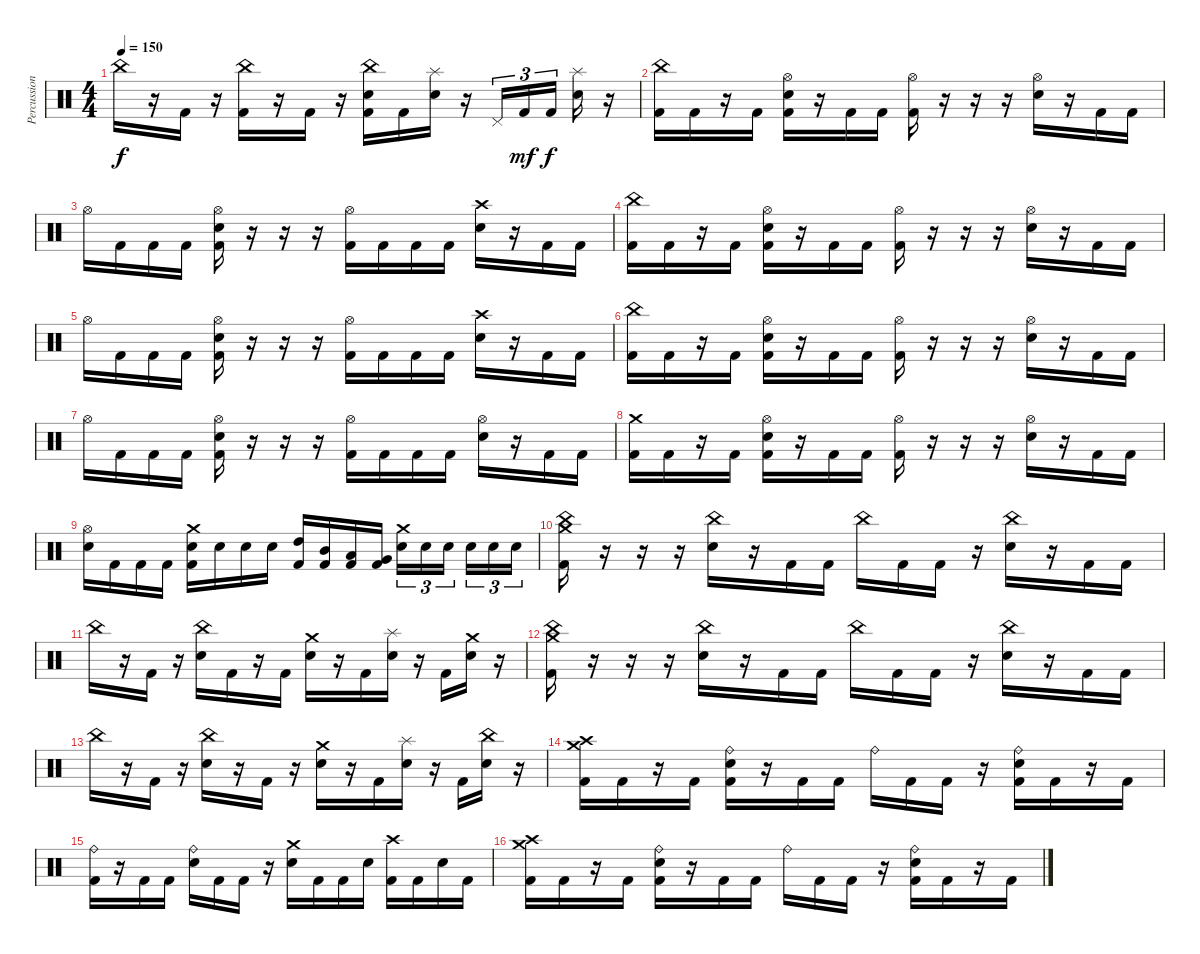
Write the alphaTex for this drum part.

\track ("Percussion" "Percussion") {instrument percussion}
\staff {score}
\articulation defaults
\ts (4 4)
\tempo 150
\clef neutral
\ks c "China (hit)".16{dy f}
r.16 "Kick (hit) 2".16 r.16 ("China (hit)" "Kick (hit) 2").16 r.16 "Kick (hit) 2".16 r.16 ("China (hit)" "Electric Snare (hit)" "Kick (hit) 2").16 "Kick (hit) 2".16 ("Splash (hit)" "Electric Snare (hit)").16 r.16 "Pedal Hi-Hat (hit)".16{tu (3 2)} "Kick (hit) 2".16{tu (3 2) dy mf} "Kick (hit) 2".16{tu (3 2) dy f} ("Splash (hit)" "Electric Snare (hit)").16 r.16 |
("China (hit)" "Kick (hit) 2").16 "Kick (hit) 2".16 r.16 "Kick (hit) 2".16 ("Hi-Hat (open)" "Electric Snare (hit)" "Kick (hit) 2").16 r.16 "Kick (hit) 2".16 "Kick (hit) 2".16 ("Hi-Hat (open)" "Kick (hit) 2").16 r.16 r.16 r.16 ("Hi-Hat (open)" "Electric Snare (hit)").16 r.16 "Kick (hit) 2".16 "Kick (hit) 2".16 |
"Hi-Hat (open)".16 "Kick (hit) 2".16 "Kick (hit) 2".16 "Kick (hit) 2".16 ("Hi-Hat (open)" "Electric Snare (hit)" "Kick (hit) 2").16 r.16 r.16 r.16 ("Hi-Hat (open)" "Kick (hit) 2").16 "Kick (hit) 2".16 "Kick (hit) 2".16 "Kick (hit) 2".16 ("Crash high (hit)" "Electric Snare (hit)").16 r.16 "Kick (hit) 2".16 "Kick (hit) 2".16 |
("China (hit)" "Kick (hit) 2").16 "Kick (hit) 2".16 r.16 "Kick (hit) 2".16 ("Hi-Hat (open)" "Electric Snare (hit)" "Kick (hit) 2").16 r.16 "Kick (hit) 2".16 "Kick (hit) 2".16 ("Hi-Hat (open)" "Kick (hit) 2").16 r.16 r.16 r.16 ("Hi-Hat (open)" "Electric Snare (hit)").16 r.16 "Kick (hit) 2".16 "Kick (hit) 2".16 |
"Hi-Hat (open)".16 "Kick (hit) 2".16 "Kick (hit) 2".16 "Kick (hit) 2".16 ("Hi-Hat (open)" "Electric Snare (hit)" "Kick (hit) 2").16 r.16 r.16 r.16 ("Hi-Hat (open)" "Kick (hit) 2").16 "Kick (hit) 2".16 "Kick (hit) 2".16 "Kick (hit) 2".16 ("Crash high (hit)" "Electric Snare (hit)").16 r.16 "Kick (hit) 2".16 "Kick (hit) 2".16 |
("China (hit)" "Kick (hit) 2").16 "Kick (hit) 2".16 r.16 "Kick (hit) 2".16 ("Hi-Hat (open)" "Electric Snare (hit)" "Kick (hit) 2").16 r.16 "Kick (hit) 2".16 "Kick (hit) 2".16 ("Hi-Hat (open)" "Kick (hit) 2").16 r.16 r.16 r.16 ("Hi-Hat (open)" "Electric Snare (hit)").16 r.16 "Kick (hit) 2".16 "Kick (hit) 2".16 |
"Hi-Hat (open)".16 "Kick (hit) 2".16 "Kick (hit) 2".16 "Kick (hit) 2".16 ("Hi-Hat (open)" "Electric Snare (hit)" "Kick (hit) 2").16 r.16 r.16 r.16 ("Hi-Hat (open)" "Kick (hit) 2").16 "Kick (hit) 2".16 "Kick (hit) 2".16 "Kick (hit) 2".16 ("Hi-Hat (open)" "Electric Snare (hit)").16 r.16 "Kick (hit) 2".16 "Kick (hit) 2".16 |
("Crash medium (hit)" "Kick (hit) 2").16 "Kick (hit) 2".16 r.16 "Kick (hit) 2".16 ("Hi-Hat (open)" "Electric Snare (hit)" "Kick (hit) 2").16 r.16 "Kick (hit) 2".16 "Kick (hit) 2".16 ("Hi-Hat (open)" "Kick (hit) 2").16 r.16 r.16 r.16 ("Hi-Hat (open)" "Electric Snare (hit)").16 r.16 "Kick (hit) 2".16 "Kick (hit) 2".16 |
("Hi-Hat (open)" "Electric Snare (hit)").16 "Kick (hit) 2".16 "Kick (hit) 2".16 "Kick (hit) 2".16 ("Crash medium (hit)" "Electric Snare (hit)" "Kick (hit) 2").16 "Electric Snare (hit)".16 "Electric Snare (hit)".16 "Electric Snare (hit)".16 ("High Tom (hit)" "Kick (hit) 2").16 ("Mid Tom (hit)" "Kick (hit) 2").16 ("Low Tom (hit)" "Kick (hit) 2").16 ("Very Low Tom (hit)" "Kick (hit) 2").16 ("Crash medium (hit)" "Electric Snare (hit)").16{tu (3 2)} "Electric Snare (hit)".16{tu (3 2)} "Electric Snare (hit)".16{tu (3 2)} "Electric Snare (hit)".16{tu (3 2)} "Electric Snare (hit)".16{tu (3 2)} "Electric Snare (hit)".16{tu (3 2)} |
("China (hit)" "Crash medium (hit)" "Kick (hit) 2").16 r.16 r.16 r.16 ("China (hit)" "Electric Snare (hit)").16 r.16 "Kick (hit) 2".16 "Kick (hit) 2".16 "China (hit)".16 "Kick (hit) 2".16 "Kick (hit) 2".16 r.16 ("China (hit)" "Electric Snare (hit)").16 r.16 "Kick (hit) 2".16 "Kick (hit) 2".16 |
"China (hit)".16 r.16 "Kick (hit) 2".16 r.16 ("China (hit)" "Electric Snare (hit)").16 "Kick (hit) 2".16 r.16 "Kick (hit) 2".16 ("Crash medium (hit)" "Electric Snare (hit)").16 r.16 "Kick (hit) 2".16 ("Splash (hit)" "Electric Snare (hit)").16 r.16 "Kick (hit) 2".16 ("Crash medium (hit)" "Electric Snare (hit)").16 r.16 |
("China (hit)" "Crash medium (hit)" "Kick (hit) 2").16 r.16 r.16 r.16 ("China (hit)" "Electric Snare (hit)").16 r.16 "Kick (hit) 2".16 "Kick (hit) 2".16 "China (hit)".16 "Kick (hit) 2".16 "Kick (hit) 2".16 r.16 ("China (hit)" "Electric Snare (hit)").16 r.16 "Kick (hit) 2".16 "Kick (hit) 2".16 |
"China (hit)".16 r.16 "Kick (hit) 2".16 r.16 ("China (hit)" "Electric Snare (hit)").16 r.16 "Kick (hit) 2".16 r.16 ("Crash medium (hit)" "Electric Snare (hit)").16 r.16 "Kick (hit) 2".16 ("Splash (hit)" "Electric Snare (hit)").16 r.16 "Kick (hit) 2".16 ("China (hit)" "Electric Snare (hit)").16 r.16 |
("Crash medium (hit)" "Crash high (hit)" "Kick (hit) 2").16 "Kick (hit) 2".16 r.16 "Kick (hit) 2".16 ("Ride (bell)" "Electric Snare (hit)" "Kick (hit) 2").16 r.16 "Kick (hit) 2".16 "Kick (hit) 2".16 "Ride (bell)".16 "Kick (hit) 2".16 "Kick (hit) 2".16 r.16 ("Ride (bell)" "Electric Snare (hit)" "Kick (hit) 2").16 "Kick (hit) 2".16 r.16 "Kick (hit) 2".16 |
("Ride (bell)" "Kick (hit) 2").16 r.16 "Kick (hit) 2".16 "Kick (hit) 2".16 ("Ride (bell)" "Electric Snare (hit)").16 "Kick (hit) 2".16 "Kick (hit) 2".16 r.16 ("Crash medium (hit)" "Electric Snare (hit)").16 "Kick (hit) 2".16 "Kick (hit) 2".16 "Electric Snare (hit)".16 ("Crash high (hit)" "Kick (hit) 2").16 "Kick (hit) 2".16 "Electric Snare (hit)".16 "Kick (hit) 2".16 |
("Crash medium (hit)" "Crash high (hit)" "Kick (hit) 2").16 "Kick (hit) 2".16 r.16 "Kick (hit) 2".16 ("Ride (bell)" "Electric Snare (hit)" "Kick (hit) 2").16 r.16 "Kick (hit) 2".16 "Kick (hit) 2".16 "Ride (bell)".16 "Kick (hit) 2".16 "Kick (hit) 2".16 r.16 ("Ride (bell)" "Electric Snare (hit)" "Kick (hit) 2").16 "Kick (hit) 2".16 r.16 "Kick (hit) 2".16
